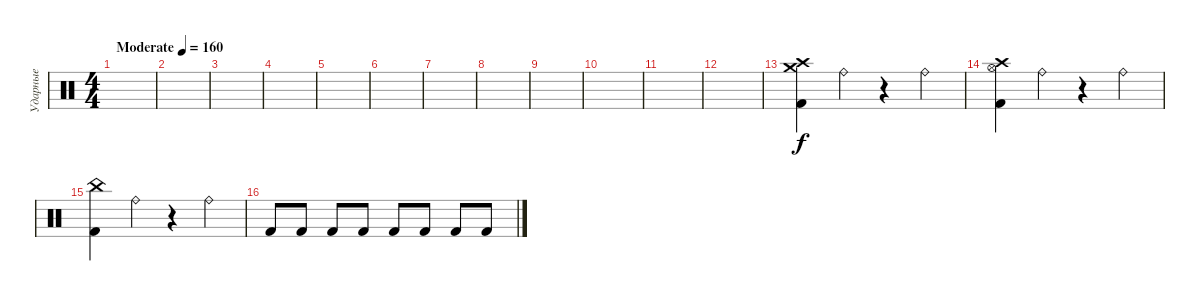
\track ("Ударные" "Ударные") {instrument percussion}
\staff {score}
\articulation defaults
\ts (4 4)
\tempo (160 "Moderate")
\clef neutral
\ks c
|
|
|
|
|
|
|
|
|
|
|
|
("Crash medium (hit)" "Crash high (hit)" "Kick (hit) 2").4 "Ride (bell)".4 r.4 "Ride (bell)".4 |
("Crash high (hit)" "Hi-Hat (open)" "Kick (hit) 2").4 "Ride (bell)".4 r.4 "Ride (bell)".4 |
("China (hit)" "Kick (hit) 2").4 "Ride (bell)".4 r.4 "Ride (bell)".4 |
"Kick (hit) 2".8 "Kick (hit) 2".8 "Kick (hit) 2".8 "Kick (hit) 2".8 "Kick (hit) 2".8 "Kick (hit) 2".8 "Kick (hit) 2".8 "Kick (hit) 2".8
